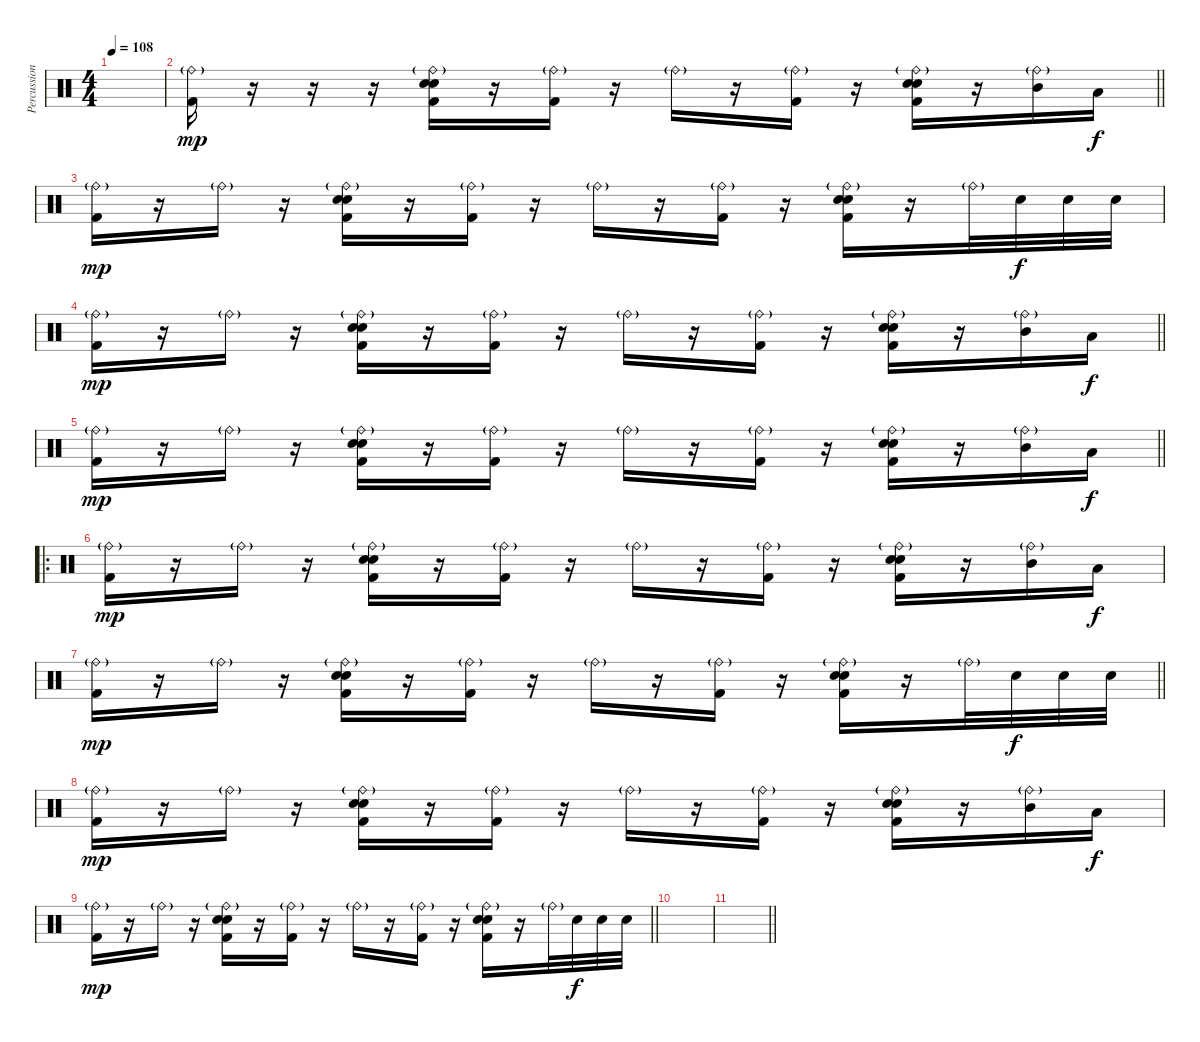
\track ("Percussion" "Percussion") {instrument percussion}
\staff {score}
\articulation defaults
\ts (4 4)
\tempo 108
\clef neutral
\ks c
|
\barLineRight lightlight
("Ride (bell)"{g} "Kick (hit) 2").16{dy mp} r.16 r.16 r.16 ("Ride (bell)"{g} "Kick (hit) 2" "Snare (hit) 2" "Electric Snare (hit)").16 r.16 ("Ride (bell)"{g} "Kick (hit) 2").16 r.16 "Ride (bell)"{g}.16 r.16 ("Ride (bell)"{g} "Kick (hit) 2").16 r.16 ("Ride (bell)"{g} "Kick (hit) 2" "Snare (hit) 2" "Electric Snare (hit)").16 r.16 ("Ride (bell)"{g} "Mid Tom (hit)").16 "Low Tom (hit)".16{dy f} |
("Ride (bell)"{g} "Kick (hit) 2").16{dy mp} r.16 "Ride (bell)"{g}.16 r.16 ("Ride (bell)"{g} "Kick (hit) 2" "Snare (hit) 2" "Electric Snare (hit)").16 r.16 ("Ride (bell)"{g} "Kick (hit) 2").16 r.16 "Ride (bell)"{g}.16 r.16 ("Ride (bell)"{g} "Kick (hit) 2").16 r.16 ("Ride (bell)"{g} "Kick (hit) 2" "Snare (hit) 2" "Electric Snare (hit)").16 r.16 "Ride (bell)"{g}.32 "Snare (hit) 2".32{dy f} "Snare (hit) 2".32 "Snare (hit) 2".32 |
\barLineRight lightlight
("Ride (bell)"{g} "Kick (hit) 2").16{dy mp} r.16 "Ride (bell)"{g}.16 r.16 ("Ride (bell)"{g} "Kick (hit) 2" "Snare (hit) 2" "Electric Snare (hit)").16 r.16 ("Ride (bell)"{g} "Kick (hit) 2").16 r.16 "Ride (bell)"{g}.16 r.16 ("Ride (bell)"{g} "Kick (hit) 2").16 r.16 ("Ride (bell)"{g} "Kick (hit) 2" "Snare (hit) 2" "Electric Snare (hit)").16 r.16 ("Ride (bell)"{g} "Mid Tom (hit)").16 "Low Tom (hit)".16{dy f} |
\barLineRight lightlight
("Ride (bell)"{g} "Kick (hit) 2").16{dy mp} r.16 "Ride (bell)"{g}.16 r.16 ("Ride (bell)"{g} "Kick (hit) 2" "Snare (hit) 2" "Electric Snare (hit)").16 r.16 ("Ride (bell)"{g} "Kick (hit) 2").16 r.16 "Ride (bell)"{g}.16 r.16 ("Ride (bell)"{g} "Kick (hit) 2").16 r.16 ("Ride (bell)"{g} "Kick (hit) 2" "Snare (hit) 2" "Electric Snare (hit)").16 r.16 ("Ride (bell)"{g} "Mid Tom (hit)").16 "Low Tom (hit)".16{dy f} |
\ro
("Ride (bell)"{g} "Kick (hit) 2").16{dy mp volume 0} r.16 "Ride (bell)"{g}.16 r.16 ("Ride (bell)"{g} "Kick (hit) 2" "Snare (hit) 2" "Electric Snare (hit)").16 r.16 ("Ride (bell)"{g} "Kick (hit) 2").16 r.16 "Ride (bell)"{g}.16 r.16 ("Ride (bell)"{g} "Kick (hit) 2").16 r.16 ("Ride (bell)"{g} "Kick (hit) 2" "Snare (hit) 2" "Electric Snare (hit)").16 r.16 ("Ride (bell)"{g} "Mid Tom (hit)").16 "Low Tom (hit)".16{dy f} |
\barLineRight lightlight
("Ride (bell)"{g} "Kick (hit) 2").16{dy mp} r.16 "Ride (bell)"{g}.16 r.16 ("Ride (bell)"{g} "Kick (hit) 2" "Snare (hit) 2" "Electric Snare (hit)").16 r.16 ("Ride (bell)"{g} "Kick (hit) 2").16 r.16 "Ride (bell)"{g}.16 r.16 ("Ride (bell)"{g} "Kick (hit) 2").16 r.16 ("Ride (bell)"{g} "Kick (hit) 2" "Snare (hit) 2" "Electric Snare (hit)").16 r.16 "Ride (bell)"{g}.32 "Snare (hit) 2".32{dy f} "Snare (hit) 2".32 "Snare (hit) 2".32 |
("Ride (bell)"{g} "Kick (hit) 2").16{dy mp} r.16 "Ride (bell)"{g}.16 r.16 ("Ride (bell)"{g} "Kick (hit) 2" "Snare (hit) 2" "Electric Snare (hit)").16 r.16 ("Ride (bell)"{g} "Kick (hit) 2").16 r.16 "Ride (bell)"{g}.16 r.16 ("Ride (bell)"{g} "Kick (hit) 2").16 r.16 ("Ride (bell)"{g} "Kick (hit) 2" "Snare (hit) 2" "Electric Snare (hit)").16 r.16 ("Ride (bell)"{g} "Mid Tom (hit)").16 "Low Tom (hit)".16{dy f} |
\barLineRight lightlight
("Ride (bell)"{g} "Kick (hit) 2").16{dy mp} r.16 "Ride (bell)"{g}.16 r.16 ("Ride (bell)"{g} "Kick (hit) 2" "Snare (hit) 2" "Electric Snare (hit)").16 r.16 ("Ride (bell)"{g} "Kick (hit) 2").16 r.16 "Ride (bell)"{g}.16 r.16 ("Ride (bell)"{g} "Kick (hit) 2").16 r.16 ("Ride (bell)"{g} "Kick (hit) 2" "Snare (hit) 2" "Electric Snare (hit)").16 r.16 "Ride (bell)"{g}.32 "Snare (hit) 2".32{dy f} "Snare (hit) 2".32 "Snare (hit) 2".32 |
|
\barLineRight lightlight
